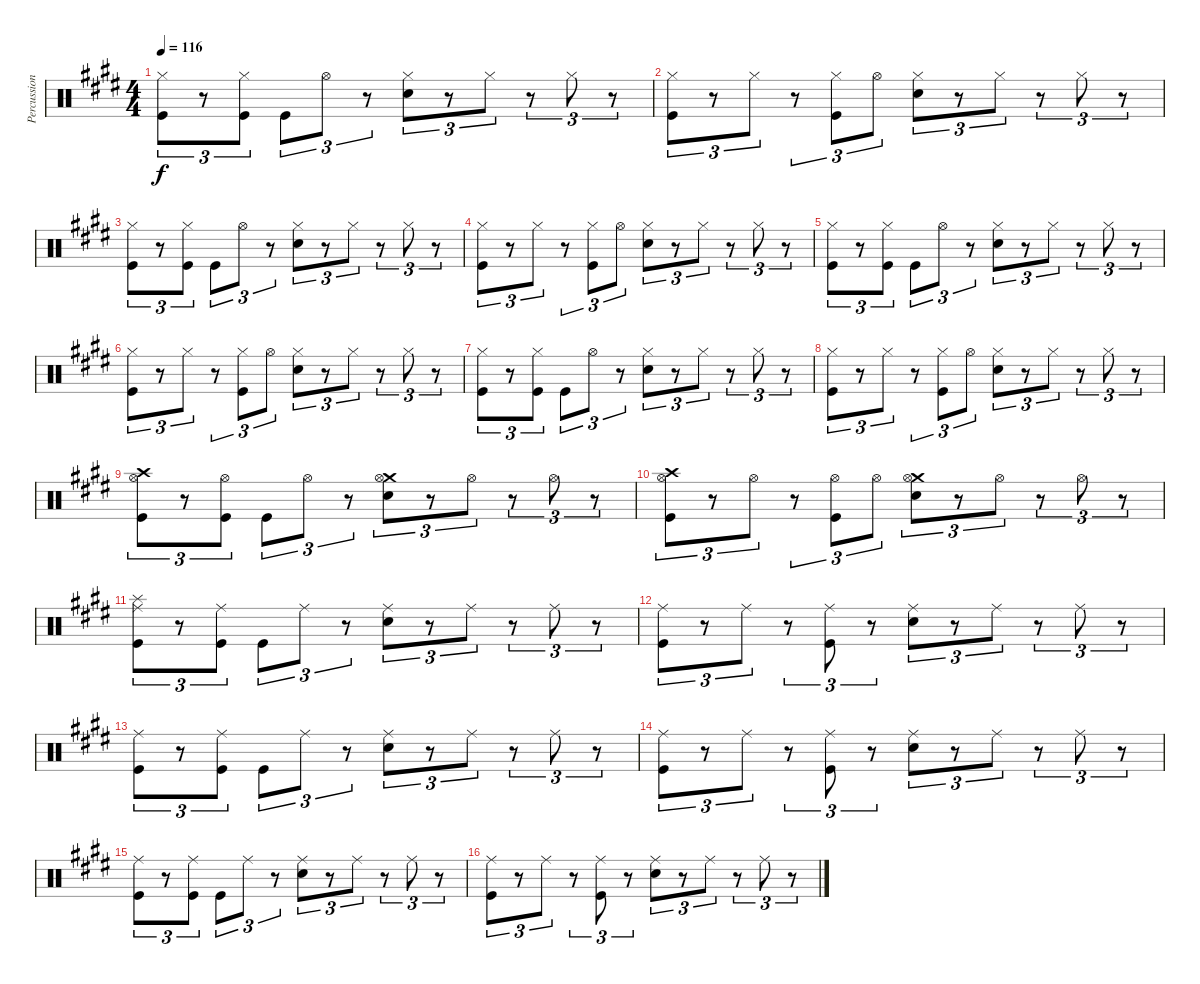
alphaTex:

\track ("Percussion" "Percussion") {instrument percussion}
\staff {score}
\articulation defaults
\ts (4 4)
\tempo 116
\clef neutral
\ks c#minor
("Hi-Hat (closed)" "Kick (hit)").8{tu (3 2) dy f} r.8{tu (3 2)} ("Hi-Hat (closed)" "Kick (hit)").8{tu (3 2)} "Kick (hit)".8{tu (3 2)} "Hi-Hat (open)".8{tu (3 2)} r.8{tu (3 2)} ("Snare (hit) 2" "Hi-Hat (closed)").8{tu (3 2)} r.8{tu (3 2)} "Hi-Hat (closed)".8{tu (3 2)} r.8{tu (3 2)} "Hi-Hat (closed)".8{tu (3 2)} r.8{tu (3 2)} |
("Hi-Hat (closed)" "Kick (hit)").8{tu (3 2)} r.8{tu (3 2)} "Hi-Hat (closed)".8{tu (3 2)} r.8{tu (3 2)} ("Hi-Hat (closed)" "Kick (hit)").8{tu (3 2)} "Hi-Hat (open)".8{tu (3 2)} ("Snare (hit) 2" "Hi-Hat (closed)").8{tu (3 2)} r.8{tu (3 2)} "Hi-Hat (closed)".8{tu (3 2)} r.8{tu (3 2)} "Hi-Hat (closed)".8{tu (3 2)} r.8{tu (3 2)} |
("Hi-Hat (closed)" "Kick (hit)").8{tu (3 2)} r.8{tu (3 2)} ("Hi-Hat (closed)" "Kick (hit)").8{tu (3 2)} "Kick (hit)".8{tu (3 2)} "Hi-Hat (open)".8{tu (3 2)} r.8{tu (3 2)} ("Snare (hit) 2" "Hi-Hat (closed)").8{tu (3 2)} r.8{tu (3 2)} "Hi-Hat (closed)".8{tu (3 2)} r.8{tu (3 2)} "Hi-Hat (closed)".8{tu (3 2)} r.8{tu (3 2)} |
("Hi-Hat (closed)" "Kick (hit)").8{tu (3 2)} r.8{tu (3 2)} "Hi-Hat (closed)".8{tu (3 2)} r.8{tu (3 2)} ("Hi-Hat (closed)" "Kick (hit)").8{tu (3 2)} "Hi-Hat (open)".8{tu (3 2)} ("Snare (hit) 2" "Hi-Hat (closed)").8{tu (3 2)} r.8{tu (3 2)} "Hi-Hat (closed)".8{tu (3 2)} r.8{tu (3 2)} "Hi-Hat (closed)".8{tu (3 2)} r.8{tu (3 2)} |
("Hi-Hat (closed)" "Kick (hit)").8{tu (3 2)} r.8{tu (3 2)} ("Hi-Hat (closed)" "Kick (hit)").8{tu (3 2)} "Kick (hit)".8{tu (3 2)} "Hi-Hat (open)".8{tu (3 2)} r.8{tu (3 2)} ("Snare (hit) 2" "Hi-Hat (closed)").8{tu (3 2)} r.8{tu (3 2)} "Hi-Hat (closed)".8{tu (3 2)} r.8{tu (3 2)} "Hi-Hat (closed)".8{tu (3 2)} r.8{tu (3 2)} |
("Hi-Hat (closed)" "Kick (hit)").8{tu (3 2)} r.8{tu (3 2)} "Hi-Hat (closed)".8{tu (3 2)} r.8{tu (3 2)} ("Hi-Hat (closed)" "Kick (hit)").8{tu (3 2)} "Hi-Hat (open)".8{tu (3 2)} ("Snare (hit) 2" "Hi-Hat (closed)").8{tu (3 2)} r.8{tu (3 2)} "Hi-Hat (closed)".8{tu (3 2)} r.8{tu (3 2)} "Hi-Hat (closed)".8{tu (3 2)} r.8{tu (3 2)} |
("Hi-Hat (closed)" "Kick (hit)").8{tu (3 2)} r.8{tu (3 2)} ("Hi-Hat (closed)" "Kick (hit)").8{tu (3 2)} "Kick (hit)".8{tu (3 2)} "Hi-Hat (open)".8{tu (3 2)} r.8{tu (3 2)} ("Snare (hit) 2" "Hi-Hat (closed)").8{tu (3 2)} r.8{tu (3 2)} "Hi-Hat (closed)".8{tu (3 2)} r.8{tu (3 2)} "Hi-Hat (closed)".8{tu (3 2)} r.8{tu (3 2)} |
("Hi-Hat (closed)" "Kick (hit)").8{tu (3 2)} r.8{tu (3 2)} "Hi-Hat (closed)".8{tu (3 2)} r.8{tu (3 2)} ("Hi-Hat (closed)" "Kick (hit)").8{tu (3 2)} "Hi-Hat (open)".8{tu (3 2)} ("Snare (hit) 2" "Hi-Hat (closed)").8{tu (3 2)} r.8{tu (3 2)} "Hi-Hat (closed)".8{tu (3 2)} r.8{tu (3 2)} "Hi-Hat (closed)".8{tu (3 2)} r.8{tu (3 2)} |
("Crash high (hit)" "Hi-Hat (open)" "Kick (hit)").8{tu (3 2)} r.8{tu (3 2)} ("Hi-Hat (open)" "Kick (hit)").8{tu (3 2)} "Kick (hit)".8{tu (3 2)} "Hi-Hat (open)".8{tu (3 2)} r.8{tu (3 2)} ("Crash medium (hit)" "Snare (hit) 2" "Hi-Hat (open)").8{tu (3 2)} r.8{tu (3 2)} "Hi-Hat (open)".8{tu (3 2)} r.8{tu (3 2)} "Hi-Hat (open)".8{tu (3 2)} r.8{tu (3 2)} |
("Crash high (hit)" "Hi-Hat (open)" "Kick (hit)").8{tu (3 2)} r.8{tu (3 2)} "Hi-Hat (open)".8{tu (3 2)} r.8{tu (3 2)} ("Hi-Hat (open)" "Kick (hit)").8{tu (3 2)} "Hi-Hat (open)".8{tu (3 2)} ("Crash medium (hit)" "Snare (hit) 2" "Hi-Hat (open)").8{tu (3 2)} r.8{tu (3 2)} "Hi-Hat (open)".8{tu (3 2)} r.8{tu (3 2)} "Hi-Hat (open)".8{tu (3 2)} r.8{tu (3 2)} |
("Splash (hit)" "Ride (middle)" "Kick (hit)").8{tu (3 2)} r.8{tu (3 2)} ("Ride (middle)" "Kick (hit)").8{tu (3 2)} "Kick (hit)".8{tu (3 2)} "Ride (middle)".8{tu (3 2)} r.8{tu (3 2)} ("Snare (hit) 2" "Ride (middle)").8{tu (3 2)} r.8{tu (3 2)} "Ride (middle)".8{tu (3 2)} r.8{tu (3 2)} "Ride (middle)".8{tu (3 2)} r.8{tu (3 2)} |
("Ride (middle)" "Kick (hit)").8{tu (3 2)} r.8{tu (3 2)} "Ride (middle)".8{tu (3 2)} r.8{tu (3 2)} ("Ride (middle)" "Kick (hit)").8{tu (3 2)} r.8{tu (3 2)} ("Snare (hit) 2" "Ride (middle)").8{tu (3 2)} r.8{tu (3 2)} "Ride (middle)".8{tu (3 2)} r.8{tu (3 2)} "Ride (middle)".8{tu (3 2)} r.8{tu (3 2)} |
("Ride (middle)" "Kick (hit)").8{tu (3 2)} r.8{tu (3 2)} ("Ride (middle)" "Kick (hit)").8{tu (3 2)} "Kick (hit)".8{tu (3 2)} "Ride (middle)".8{tu (3 2)} r.8{tu (3 2)} ("Snare (hit) 2" "Ride (middle)").8{tu (3 2)} r.8{tu (3 2)} "Ride (middle)".8{tu (3 2)} r.8{tu (3 2)} "Ride (middle)".8{tu (3 2)} r.8{tu (3 2)} |
("Ride (middle)" "Kick (hit)").8{tu (3 2)} r.8{tu (3 2)} "Ride (middle)".8{tu (3 2)} r.8{tu (3 2)} ("Ride (middle)" "Kick (hit)").8{tu (3 2)} r.8{tu (3 2)} ("Snare (hit) 2" "Ride (middle)").8{tu (3 2)} r.8{tu (3 2)} "Ride (middle)".8{tu (3 2)} r.8{tu (3 2)} "Ride (middle)".8{tu (3 2)} r.8{tu (3 2)} |
("Ride (middle)" "Kick (hit)").8{tu (3 2)} r.8{tu (3 2)} ("Ride (middle)" "Kick (hit)").8{tu (3 2)} "Kick (hit)".8{tu (3 2)} "Ride (middle)".8{tu (3 2)} r.8{tu (3 2)} ("Snare (hit) 2" "Ride (middle)").8{tu (3 2)} r.8{tu (3 2)} "Ride (middle)".8{tu (3 2)} r.8{tu (3 2)} "Ride (middle)".8{tu (3 2)} r.8{tu (3 2)} |
("Ride (middle)" "Kick (hit)").8{tu (3 2)} r.8{tu (3 2)} "Ride (middle)".8{tu (3 2)} r.8{tu (3 2)} ("Ride (middle)" "Kick (hit)").8{tu (3 2)} r.8{tu (3 2)} ("Snare (hit) 2" "Ride (middle)").8{tu (3 2)} r.8{tu (3 2)} "Ride (middle)".8{tu (3 2)} r.8{tu (3 2)} "Ride (middle)".8{tu (3 2)} r.8{tu (3 2)}
